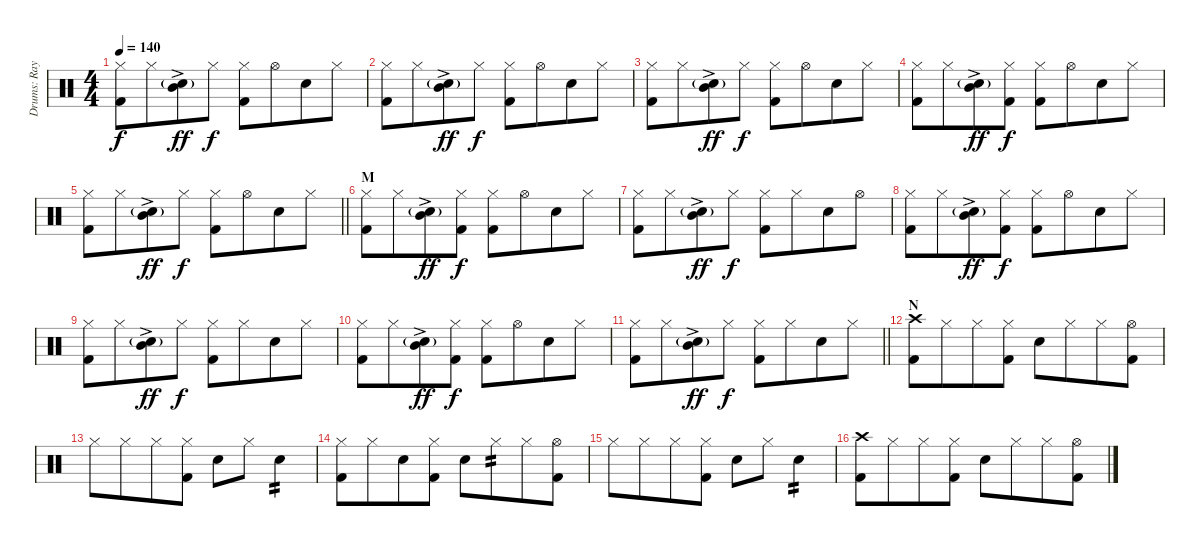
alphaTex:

\track ("Drums: Ray Cooper" "Drums: Ray") {instrument percussion}
\staff {score}
\articulation defaults
\ts (4 4)
\tempo 140
\clef neutral
\ks c
("Hi-Hat (closed)" "Kick (hit) 2").8{dy f} "Hi-Hat (closed)".8{beam merge} ("Electric Snare (hit)"{g} "Mid Tom (hit)"{ac}).8{dy ff} "Hi-Hat (closed)".8{dy f} ("Hi-Hat (closed)" "Kick (hit) 2").8 "Hi-Hat (open)".8{beam merge} "Snare (hit) 2".8 "Hi-Hat (closed)".8 |
("Hi-Hat (closed)" "Kick (hit) 2").8 "Hi-Hat (closed)".8{beam merge} ("Electric Snare (hit)"{g} "Mid Tom (hit)"{ac}).8{dy ff} "Hi-Hat (closed)".8{dy f} ("Hi-Hat (closed)" "Kick (hit) 2").8 "Hi-Hat (open)".8{beam merge} "Snare (hit) 2".8 "Hi-Hat (closed)".8 |
("Hi-Hat (closed)" "Kick (hit) 2").8 "Hi-Hat (closed)".8{beam merge} ("Electric Snare (hit)"{g} "Mid Tom (hit)"{ac}).8{dy ff} "Hi-Hat (closed)".8{dy f} ("Hi-Hat (closed)" "Kick (hit) 2").8 "Hi-Hat (open)".8{beam merge} "Snare (hit) 2".8 "Hi-Hat (closed)".8 |
("Hi-Hat (closed)" "Kick (hit) 2").8 "Hi-Hat (closed)".8{beam merge} ("Electric Snare (hit)"{g} "Mid Tom (hit)"{ac}).8{dy ff} ("Hi-Hat (closed)" "Kick (hit) 2").8{dy f} ("Hi-Hat (closed)" "Kick (hit) 2").8 "Hi-Hat (open)".8{beam merge} "Snare (hit) 2".8 "Hi-Hat (closed)".8 |
\barLineRight lightlight
("Hi-Hat (closed)" "Kick (hit) 2").8 "Hi-Hat (closed)".8{beam merge} ("Electric Snare (hit)"{g} "Mid Tom (hit)"{ac}).8{dy ff} "Hi-Hat (closed)".8{dy f} ("Hi-Hat (closed)" "Kick (hit) 2").8 "Hi-Hat (open)".8{beam merge} "Snare (hit) 2".8 "Hi-Hat (closed)".8 |
\section ("" "M")
("Hi-Hat (closed)" "Kick (hit) 2").8 "Hi-Hat (closed)".8{beam merge} ("Electric Snare (hit)"{g} "Mid Tom (hit)"{ac}).8{dy ff} ("Hi-Hat (closed)" "Kick (hit) 2").8{dy f} ("Hi-Hat (closed)" "Kick (hit) 2").8 "Hi-Hat (open)".8{beam merge} "Snare (hit) 2".8 "Hi-Hat (closed)".8 |
("Hi-Hat (closed)" "Kick (hit) 2").8 "Hi-Hat (closed)".8{beam merge} ("Electric Snare (hit)"{g} "Mid Tom (hit)"{ac}).8{dy ff} "Hi-Hat (closed)".8{dy f} ("Hi-Hat (closed)" "Kick (hit) 2").8 "Hi-Hat (closed)".8{beam merge} "Snare (hit) 2".8 "Hi-Hat (open)".8 |
("Hi-Hat (closed)" "Kick (hit) 2").8 "Hi-Hat (closed)".8{beam merge} ("Electric Snare (hit)"{g} "Mid Tom (hit)"{ac}).8{dy ff} ("Hi-Hat (closed)" "Kick (hit) 2").8{dy f} ("Hi-Hat (closed)" "Kick (hit) 2").8 "Hi-Hat (open)".8{beam merge} "Snare (hit) 2".8 "Hi-Hat (closed)".8 |
("Hi-Hat (closed)" "Kick (hit) 2").8 "Hi-Hat (closed)".8{beam merge} ("Electric Snare (hit)"{g} "Mid Tom (hit)"{ac}).8{dy ff} "Hi-Hat (closed)".8{dy f} ("Hi-Hat (closed)" "Kick (hit) 2").8 "Hi-Hat (closed)".8{beam merge} "Snare (hit) 2".8 "Hi-Hat (closed)".8 |
("Hi-Hat (closed)" "Kick (hit) 2").8 "Hi-Hat (closed)".8{beam merge} ("Electric Snare (hit)"{g} "Mid Tom (hit)"{ac}).8{dy ff} ("Hi-Hat (closed)" "Kick (hit) 2").8{dy f} ("Hi-Hat (closed)" "Kick (hit) 2").8 "Hi-Hat (open)".8{beam merge} "Snare (hit) 2".8 "Hi-Hat (closed)".8 |
\barLineRight lightlight
("Hi-Hat (closed)" "Kick (hit) 2").8 "Hi-Hat (closed)".8{beam merge} ("Electric Snare (hit)"{g} "Mid Tom (hit)"{ac}).8{dy ff} "Hi-Hat (closed)".8{dy f} ("Hi-Hat (closed)" "Kick (hit) 2").8 "Hi-Hat (closed)".8{beam merge} "Snare (hit) 2".8 "Hi-Hat (closed)".8 |
\section ("" "N")
("Crash high (hit)" "Kick (hit) 2").8 "Hi-Hat (closed)".8{beam merge} "Hi-Hat (closed)".8 ("Hi-Hat (closed)" "Kick (hit) 2").8 "Snare (hit) 2".8 "Hi-Hat (closed)".8{beam merge} "Hi-Hat (closed)".8 ("Hi-Hat (open)" "Kick (hit) 2").8 |
"Hi-Hat (closed)".8 "Hi-Hat (closed)".8{beam merge} "Hi-Hat (closed)".8 ("Hi-Hat (closed)" "Kick (hit) 2").8 "Snare (hit) 2".8 "Hi-Hat (closed)".8 "Snare (hit) 2".4{tp 2} |
("Hi-Hat (closed)" "Kick (hit) 2").8 "Hi-Hat (closed)".8{beam merge} "Snare (hit)".8 ("Hi-Hat (closed)" "Kick (hit) 2").8 "Snare (hit) 2".8 "Hi-Hat (closed)".8{tp 2 beam merge} "Hi-Hat (closed)".8 ("Hi-Hat (open)" "Kick (hit) 2").8 |
"Hi-Hat (closed)".8 "Hi-Hat (closed)".8{beam merge} "Hi-Hat (closed)".8 ("Hi-Hat (closed)" "Kick (hit) 2").8 "Snare (hit) 2".8 "Hi-Hat (closed)".8 "Snare (hit) 2".4{tp 2} |
("Crash high (hit)" "Kick (hit) 2").8 "Hi-Hat (closed)".8{beam merge} "Hi-Hat (closed)".8 ("Hi-Hat (closed)" "Kick (hit) 2").8 "Snare (hit) 2".8 "Hi-Hat (closed)".8{beam merge} "Hi-Hat (closed)".8 ("Hi-Hat (open)" "Kick (hit) 2").8
